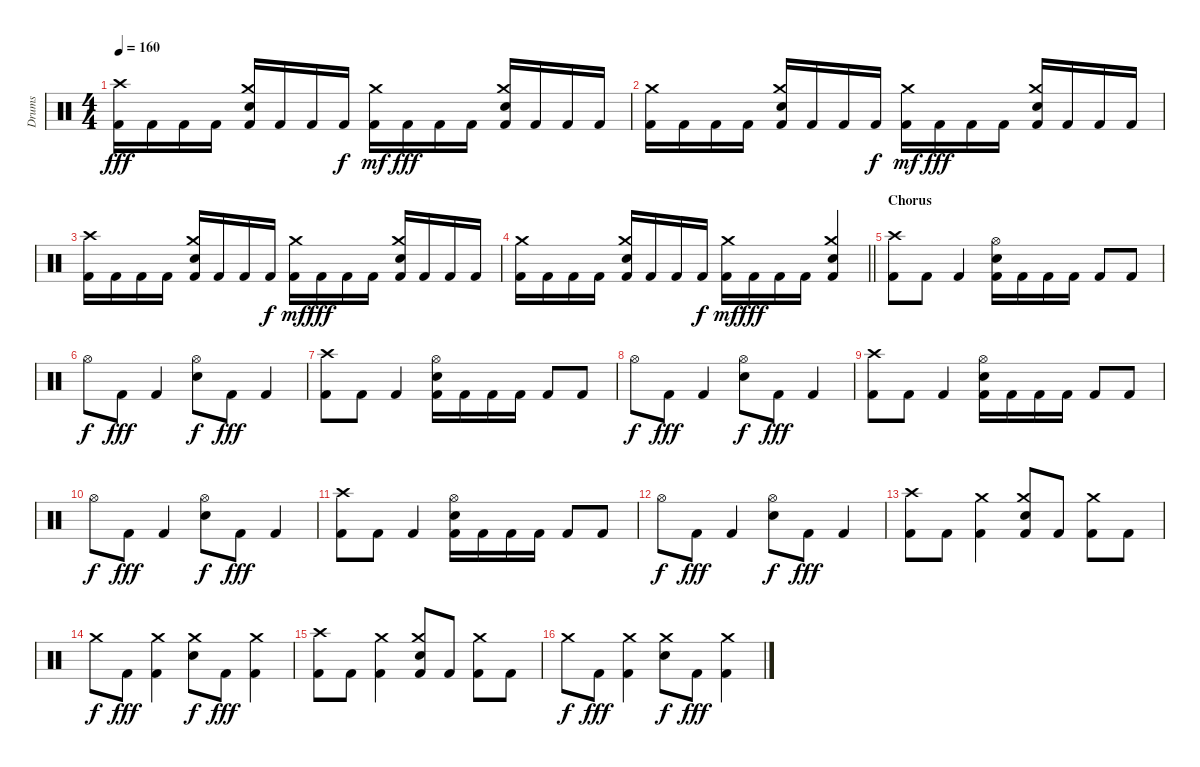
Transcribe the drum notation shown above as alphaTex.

\track ("Drums" "Drums") {instrument percussion}
\staff {score}
\articulation defaults
\ts (4 4)
\tempo 160
\clef neutral
\ks c
("Crash high (hit)" "Kick (hit) 2").16{dy fff} "Kick (hit) 2".16 "Kick (hit) 2".16 "Kick (hit) 2".16 ("Crash medium (hit)" "Snare (hit) 2" "Kick (hit) 2").16 "Kick (hit) 2".16 "Kick (hit) 2".16 "Kick (hit) 2".16{dy f} ("Crash medium (hit)" "Kick (hit) 2").16{dy mf} "Kick (hit) 2".16{dy fff} "Kick (hit) 2".16 "Kick (hit) 2".16 ("Crash medium (hit)" "Snare (hit) 2" "Kick (hit) 2").16 "Kick (hit) 2".16 "Kick (hit) 2".16 "Kick (hit) 2".16 |
("Crash medium (hit)" "Kick (hit) 2").16 "Kick (hit) 2".16 "Kick (hit) 2".16 "Kick (hit) 2".16 ("Crash medium (hit)" "Snare (hit) 2" "Kick (hit) 2").16 "Kick (hit) 2".16 "Kick (hit) 2".16 "Kick (hit) 2".16{dy f} ("Crash medium (hit)" "Kick (hit) 2").16{dy mf} "Kick (hit) 2".16{dy fff} "Kick (hit) 2".16 "Kick (hit) 2".16 ("Crash medium (hit)" "Snare (hit) 2" "Kick (hit) 2").16 "Kick (hit) 2".16 "Kick (hit) 2".16 "Kick (hit) 2".16 |
("Crash high (hit)" "Kick (hit) 2").16 "Kick (hit) 2".16 "Kick (hit) 2".16 "Kick (hit) 2".16 ("Crash medium (hit)" "Snare (hit) 2" "Kick (hit) 2").16 "Kick (hit) 2".16 "Kick (hit) 2".16 "Kick (hit) 2".16{dy f} ("Crash medium (hit)" "Kick (hit) 2").16{dy mf} "Kick (hit) 2".16{dy fff} "Kick (hit) 2".16 "Kick (hit) 2".16 ("Crash medium (hit)" "Snare (hit) 2" "Kick (hit) 2").16 "Kick (hit) 2".16 "Kick (hit) 2".16 "Kick (hit) 2".16 |
\barLineRight lightlight
("Crash medium (hit)" "Kick (hit) 2").16 "Kick (hit) 2".16 "Kick (hit) 2".16 "Kick (hit) 2".16 ("Crash medium (hit)" "Snare (hit) 2" "Kick (hit) 2").16 "Kick (hit) 2".16 "Kick (hit) 2".16 "Kick (hit) 2".16{dy f} ("Crash medium (hit)" "Kick (hit) 2").16{dy mf} "Kick (hit) 2".16{dy fff} "Kick (hit) 2".16 "Kick (hit) 2".16 ("Crash medium (hit)" "Snare (hit) 2" "Kick (hit) 2").4 |
\section ("" "Chorus")
("Crash high (hit)" "Kick (hit) 2").8 "Kick (hit) 2".8 "Kick (hit) 2".4 ("Hi-Hat (open)" "Snare (hit) 2" "Kick (hit) 2").16 "Kick (hit) 2".16 "Kick (hit) 2".16 "Kick (hit) 2".16 "Kick (hit) 2".8 "Kick (hit) 2".8 |
"Hi-Hat (open)".8{dy f} "Kick (hit) 2".8{dy fff} "Kick (hit) 2".4 ("Hi-Hat (open)" "Snare (hit) 2").8{dy f} "Kick (hit) 2".8{dy fff} "Kick (hit) 2".4 |
("Crash high (hit)" "Kick (hit) 2").8 "Kick (hit) 2".8 "Kick (hit) 2".4 ("Hi-Hat (open)" "Snare (hit) 2" "Kick (hit) 2").16 "Kick (hit) 2".16 "Kick (hit) 2".16 "Kick (hit) 2".16 "Kick (hit) 2".8 "Kick (hit) 2".8 |
"Hi-Hat (open)".8{dy f} "Kick (hit) 2".8{dy fff} "Kick (hit) 2".4 ("Hi-Hat (open)" "Snare (hit) 2").8{dy f} "Kick (hit) 2".8{dy fff} "Kick (hit) 2".4 |
("Crash high (hit)" "Kick (hit) 2").8 "Kick (hit) 2".8 "Kick (hit) 2".4 ("Hi-Hat (open)" "Snare (hit) 2" "Kick (hit) 2").16 "Kick (hit) 2".16 "Kick (hit) 2".16 "Kick (hit) 2".16 "Kick (hit) 2".8 "Kick (hit) 2".8 |
"Hi-Hat (open)".8{dy f} "Kick (hit) 2".8{dy fff} "Kick (hit) 2".4 ("Hi-Hat (open)" "Snare (hit) 2").8{dy f} "Kick (hit) 2".8{dy fff} "Kick (hit) 2".4 |
("Crash high (hit)" "Kick (hit) 2").8 "Kick (hit) 2".8 "Kick (hit) 2".4 ("Hi-Hat (open)" "Snare (hit) 2" "Kick (hit) 2").16 "Kick (hit) 2".16 "Kick (hit) 2".16 "Kick (hit) 2".16 "Kick (hit) 2".8 "Kick (hit) 2".8 |
"Hi-Hat (open)".8{dy f} "Kick (hit) 2".8{dy fff} "Kick (hit) 2".4 ("Hi-Hat (open)" "Snare (hit) 2").8{dy f} "Kick (hit) 2".8{dy fff} "Kick (hit) 2".4 |
("Crash high (hit)" "Kick (hit) 2").8 "Kick (hit) 2".8 ("Crash medium (hit)" "Kick (hit) 2").4 ("Crash medium (hit)" "Snare (hit) 2" "Kick (hit) 2").8 "Kick (hit) 2".8 ("Crash medium (hit)" "Kick (hit) 2").8 "Kick (hit) 2".8 |
"Crash medium (hit)".8{dy f} "Kick (hit) 2".8{dy fff} ("Crash medium (hit)" "Kick (hit) 2").4 ("Crash medium (hit)" "Snare (hit) 2").8{dy f} "Kick (hit) 2".8{dy fff} ("Crash medium (hit)" "Kick (hit) 2").4 |
("Crash high (hit)" "Kick (hit) 2").8 "Kick (hit) 2".8 ("Crash medium (hit)" "Kick (hit) 2").4 ("Crash medium (hit)" "Snare (hit) 2" "Kick (hit) 2").8 "Kick (hit) 2".8 ("Crash medium (hit)" "Kick (hit) 2").8 "Kick (hit) 2".8 |
"Crash medium (hit)".8{dy f} "Kick (hit) 2".8{dy fff} ("Crash medium (hit)" "Kick (hit) 2").4 ("Crash medium (hit)" "Snare (hit) 2").8{dy f} "Kick (hit) 2".8{dy fff} ("Crash medium (hit)" "Kick (hit) 2").4
